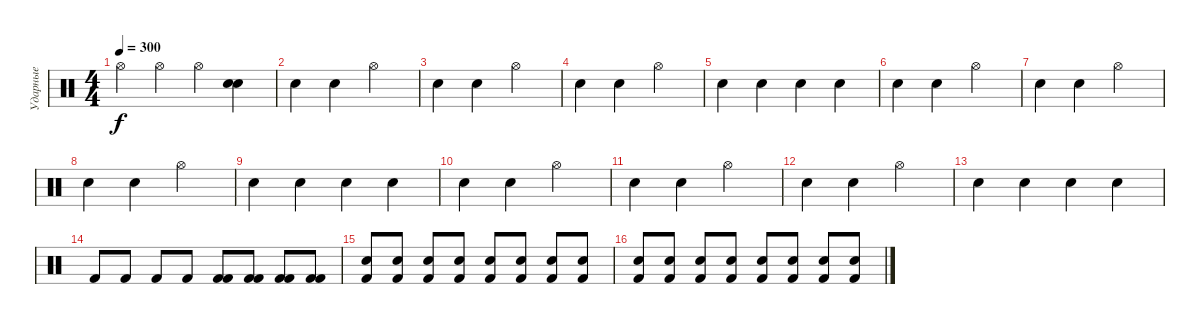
\track ("Ударные" "Ударные") {instrument percussion}
\staff {score}
\articulation defaults
\ts (4 4)
\tempo 300
\clef neutral
\ks c "Hi-Hat (open)".4{dy f} "Hi-Hat (open)".4 "Hi-Hat (open)".4
("Electric Snare (hit)" "Electric Snare (hit)").4 |
"Electric Snare (hit)".4 "Electric Snare (hit)".4 "Hi-Hat (open)".2 |
"Electric Snare (hit)".4 "Electric Snare (hit)".4 "Hi-Hat (open)".2 |
"Electric Snare (hit)".4 "Electric Snare (hit)".4 "Hi-Hat (open)".2 |
"Electric Snare (hit)".4 "Electric Snare (hit)".4 "Electric Snare (hit)".4 "Electric Snare (hit)".4 |
"Electric Snare (hit)".4 "Electric Snare (hit)".4 "Hi-Hat (open)".2 |
"Electric Snare (hit)".4 "Electric Snare (hit)".4 "Hi-Hat (open)".2 |
"Electric Snare (hit)".4 "Electric Snare (hit)".4 "Hi-Hat (open)".2 |
"Electric Snare (hit)".4 "Electric Snare (hit)".4 "Electric Snare (hit)".4 "Electric Snare (hit)".4 |
"Electric Snare (hit)".4 "Electric Snare (hit)".4 "Hi-Hat (open)".2 |
"Electric Snare (hit)".4 "Electric Snare (hit)".4 "Hi-Hat (open)".2 |
"Electric Snare (hit)".4 "Electric Snare (hit)".4 "Hi-Hat (open)".2 |
"Electric Snare (hit)".4 "Electric Snare (hit)".4 "Electric Snare (hit)".4 "Electric Snare (hit)".4 |
"Kick (hit) 2".8 "Kick (hit) 2".8 "Kick (hit) 2".8 "Kick (hit) 2".8 ("Kick (hit) 2" "Kick (hit) 2").8 ("Kick (hit) 2" "Kick (hit) 2").8 ("Kick (hit) 2" "Kick (hit) 2").8 ("Kick (hit) 2" "Kick (hit) 2").8 |
("Kick (hit) 2" "Electric Snare (hit)").8 ("Kick (hit) 2" "Electric Snare (hit)").8 ("Kick (hit) 2" "Electric Snare (hit)").8 ("Kick (hit) 2" "Electric Snare (hit)").8 ("Kick (hit) 2" "Electric Snare (hit)").8 ("Kick (hit) 2" "Electric Snare (hit)").8 ("Kick (hit) 2" "Electric Snare (hit)").8 ("Kick (hit) 2" "Electric Snare (hit)").8 |
("Kick (hit) 2" "Electric Snare (hit)").8 ("Kick (hit) 2" "Electric Snare (hit)").8 ("Kick (hit) 2" "Electric Snare (hit)").8 ("Kick (hit) 2" "Electric Snare (hit)").8 ("Kick (hit) 2" "Electric Snare (hit)").8 ("Kick (hit) 2" "Electric Snare (hit)").8 ("Kick (hit) 2" "Electric Snare (hit)").8 ("Kick (hit) 2" "Electric Snare (hit)").8
